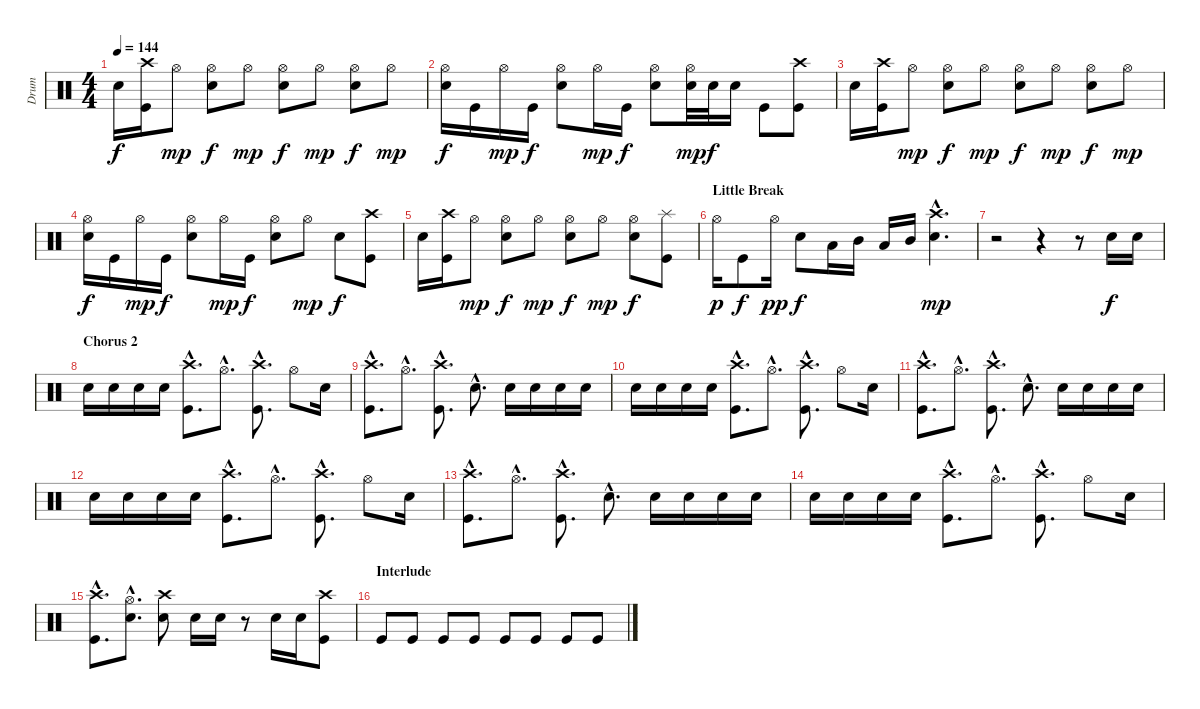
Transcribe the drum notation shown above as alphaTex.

\track ("Drum" "Drum") {instrument percussion}
\staff {score}
\articulation defaults
\ts (4 4)
\tempo 144
\clef neutral
\ks c "Snare (hit) 2".16{dy f}
("Crash high (hit)" "Kick (hit)").16 "Hi-Hat (open)".8{dy mp} ("Hi-Hat (open)" "Snare (hit) 2").8{dy f} "Hi-Hat (open)".8{dy mp} ("Hi-Hat (open)" "Snare (hit) 2").8{dy f} "Hi-Hat (open)".8{dy mp} ("Hi-Hat (open)" "Snare (hit) 2").8{dy f} "Hi-Hat (open)".8{dy mp} |
("Hi-Hat (open)" "Snare (hit) 2").16{dy f} "Kick (hit)".16 "Hi-Hat (open)".16{dy mp} "Kick (hit)".16{dy f} ("Hi-Hat (open)" "Snare (hit) 2").8 "Hi-Hat (open)".16{dy mp} "Kick (hit)".16{dy f} ("Hi-Hat (open)" "Snare (hit) 2").8 ("Hi-Hat (open)" "Snare (hit) 2").32{dy mp} "Snare (hit) 2".32{dy f} "Snare (hit) 2".16 "Kick (hit)".8 ("Crash high (hit)" "Kick (hit)").8 |
"Snare (hit) 2".16 ("Crash high (hit)" "Kick (hit)").16 "Hi-Hat (open)".8{dy mp} ("Hi-Hat (open)" "Snare (hit) 2").8{dy f} "Hi-Hat (open)".8{dy mp} ("Hi-Hat (open)" "Snare (hit) 2").8{dy f} "Hi-Hat (open)".8{dy mp} ("Hi-Hat (open)" "Snare (hit) 2").8{dy f} "Hi-Hat (open)".8{dy mp} |
("Hi-Hat (open)" "Snare (hit) 2").16{dy f} "Kick (hit)".16 "Hi-Hat (open)".16{dy mp} "Kick (hit)".16{dy f} ("Hi-Hat (open)" "Snare (hit) 2").8 "Hi-Hat (open)".16{dy mp} "Kick (hit)".16{dy f} ("Hi-Hat (open)" "Snare (hit) 2").8 "Hi-Hat (open)".8{dy mp} "Snare (hit) 2".8{dy f} ("Crash high (hit)" "Kick (hit)").8 |
"Snare (hit) 2".16 ("Crash high (hit)" "Kick (hit)").16 "Hi-Hat (open)".8{dy mp} ("Hi-Hat (open)" "Snare (hit) 2").8{dy f} "Hi-Hat (open)".8{dy mp} ("Hi-Hat (open)" "Snare (hit) 2").8{dy f} "Hi-Hat (open)".8{dy mp} ("Hi-Hat (open)" "Snare (hit) 2").8{dy f} ("Splash (hit)" "Kick (hit)").8 |
\section ("" "Little Break")
"Hi-Hat (open)".16{dy p} "Kick (hit)".8{dy f} "Hi-Hat (open)".16{dy pp} "Snare (hit) 2".8{dy f} "Low Tom (hit)".16 "Mid Tom (hit)".16 "Low Tom (hit)".16 "Mid Tom (hit)".16 ("Crash high (hit)"{hac} "Snare (hit) 2"{hac}).4{d dy mp} |
r.2 r.4 r.8 "Snare (hit) 2".16{dy f} "Snare (hit) 2".16 |
\section ("" "Chorus 2")
"Snare (hit) 2".16 "Snare (hit) 2".16 "Snare (hit) 2".16 "Snare (hit) 2".16 ("Crash high (hit)"{hac} "Kick (hit)"{hac}).8{d} "Hi-Hat (open)"{hac}.8{d} ("Crash high (hit)"{hac} "Kick (hit)"{hac}).8{d} "Hi-Hat (open)".8 "Snare (hit) 2".16 |
("Crash high (hit)"{hac} "Kick (hit)"{hac}).8{d} "Hi-Hat (open)"{hac}.8{d} ("Crash high (hit)"{hac} "Kick (hit)"{hac}).8{d} "Snare (hit) 2"{hac}.8{d} "Snare (hit) 2".16 "Snare (hit) 2".16 "Snare (hit) 2".16 "Snare (hit) 2".16 |
"Snare (hit) 2".16 "Snare (hit) 2".16 "Snare (hit) 2".16 "Snare (hit) 2".16 ("Crash high (hit)"{hac} "Kick (hit)"{hac}).8{d} "Hi-Hat (open)"{hac}.8{d} ("Crash high (hit)"{hac} "Kick (hit)"{hac}).8{d} "Hi-Hat (open)".8 "Snare (hit) 2".16 |
("Crash high (hit)"{hac} "Kick (hit)"{hac}).8{d} "Hi-Hat (open)"{hac}.8{d} ("Crash high (hit)"{hac} "Kick (hit)"{hac}).8{d} "Snare (hit) 2"{hac}.8{d} "Snare (hit) 2".16 "Snare (hit) 2".16 "Snare (hit) 2".16 "Snare (hit) 2".16 |
"Snare (hit) 2".16 "Snare (hit) 2".16 "Snare (hit) 2".16 "Snare (hit) 2".16 ("Crash high (hit)"{hac} "Kick (hit)"{hac}).8{d} "Hi-Hat (open)"{hac}.8{d} ("Crash high (hit)"{hac} "Kick (hit)"{hac}).8{d} "Hi-Hat (open)".8 "Snare (hit) 2".16 |
("Crash high (hit)"{hac} "Kick (hit)"{hac}).8{d} "Hi-Hat (open)"{hac}.8{d} ("Crash high (hit)"{hac} "Kick (hit)"{hac}).8{d} "Snare (hit) 2"{hac}.8{d} "Snare (hit) 2".16 "Snare (hit) 2".16 "Snare (hit) 2".16 "Snare (hit) 2".16 |
"Snare (hit) 2".16 "Snare (hit) 2".16 "Snare (hit) 2".16 "Snare (hit) 2".16 ("Crash high (hit)"{hac} "Kick (hit)"{hac}).8{d} "Hi-Hat (open)"{hac}.8{d} ("Crash high (hit)"{hac} "Kick (hit)"{hac}).8{d} "Hi-Hat (open)".8 "Snare (hit) 2".16 |
("Crash high (hit)"{hac} "Kick (hit)"{hac}).8{d} ("Hi-Hat (open)"{hac} "Snare (hit) 2"{hac}).8{d} ("Crash high (hit)" "Snare (hit) 2").8 "Snare (hit) 2".16 "Snare (hit) 2".16 r.8 "Snare (hit) 2".16 "Snare (hit) 2".16 ("Crash high (hit)" "Kick (hit)").8 |
\section ("" "Interlude")
"Kick (hit)".8 "Kick (hit)".8 "Kick (hit)".8 "Kick (hit)".8 "Kick (hit)".8 "Kick (hit)".8 "Kick (hit)".8 "Kick (hit)".8
